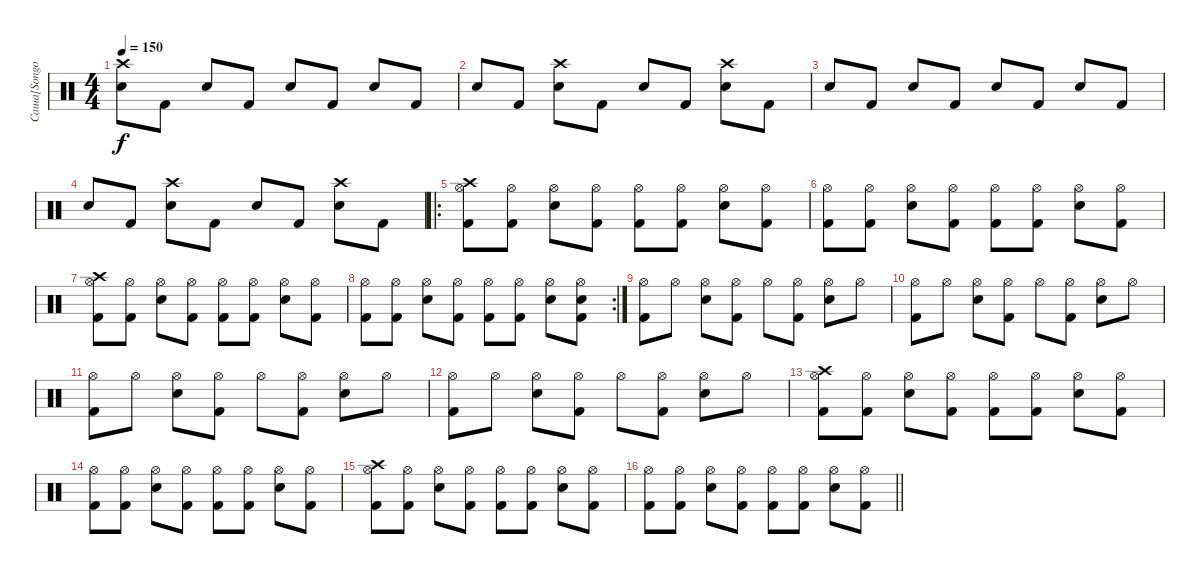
\track ("Саша[Songo]" "Саша[Songo") {instrument percussion}
\staff {score}
\articulation defaults
\ts (4 4)
\tempo 150
\clef neutral
\ks c
("Crash high (hit)" "Electric Snare (hit)").8{dy f} "Kick (hit) 2".8 "Electric Snare (hit)".8 "Kick (hit) 2".8 "Electric Snare (hit)".8 "Kick (hit) 2".8 "Electric Snare (hit)".8 "Kick (hit) 2".8 |
"Electric Snare (hit)".8 "Kick (hit) 2".8 ("Crash high (hit)" "Electric Snare (hit)").8 "Kick (hit) 2".8 "Electric Snare (hit)".8 "Kick (hit) 2".8 ("Crash high (hit)" "Electric Snare (hit)").8 "Kick (hit) 2".8 |
"Electric Snare (hit)".8 "Kick (hit) 2".8 "Electric Snare (hit)".8 "Kick (hit) 2".8 "Electric Snare (hit)".8 "Kick (hit) 2".8 "Electric Snare (hit)".8 "Kick (hit) 2".8 |
"Electric Snare (hit)".8 "Kick (hit) 2".8 ("Crash high (hit)" "Electric Snare (hit)").8 "Kick (hit) 2".8 "Electric Snare (hit)".8 "Kick (hit) 2".8 ("Crash high (hit)" "Electric Snare (hit)").8 "Kick (hit) 2".8 |
\ro
("Crash high (hit)" "Hi-Hat (open)" "Kick (hit) 2").8 ("Hi-Hat (open)" "Kick (hit) 2").8 ("Hi-Hat (open)" "Electric Snare (hit)").8 ("Hi-Hat (open)" "Kick (hit) 2").8 ("Hi-Hat (open)" "Kick (hit) 2").8 ("Hi-Hat (open)" "Kick (hit) 2").8 ("Hi-Hat (open)" "Electric Snare (hit)").8 ("Hi-Hat (open)" "Kick (hit) 2").8 |
("Hi-Hat (open)" "Kick (hit) 2").8 ("Hi-Hat (open)" "Kick (hit) 2").8 ("Hi-Hat (open)" "Electric Snare (hit)").8 ("Hi-Hat (open)" "Kick (hit) 2").8 ("Hi-Hat (open)" "Kick (hit) 2").8 ("Hi-Hat (open)" "Kick (hit) 2").8 ("Hi-Hat (open)" "Electric Snare (hit)").8 ("Hi-Hat (open)" "Kick (hit) 2").8 |
("Crash high (hit)" "Hi-Hat (open)" "Kick (hit) 2").8 ("Hi-Hat (open)" "Kick (hit) 2").8 ("Hi-Hat (open)" "Electric Snare (hit)").8 ("Hi-Hat (open)" "Kick (hit) 2").8 ("Hi-Hat (open)" "Kick (hit) 2").8 ("Hi-Hat (open)" "Kick (hit) 2").8 ("Hi-Hat (open)" "Electric Snare (hit)").8 ("Hi-Hat (open)" "Kick (hit) 2").8 |
\rc 2
("Hi-Hat (open)" "Kick (hit) 2").8 ("Hi-Hat (open)" "Kick (hit) 2").8 ("Hi-Hat (open)" "Electric Snare (hit)").8 ("Hi-Hat (open)" "Kick (hit) 2").8 ("Hi-Hat (open)" "Kick (hit) 2").8 ("Hi-Hat (open)" "Kick (hit) 2").8 ("Hi-Hat (open)" "Electric Snare (hit)").8 ("Hi-Hat (open)" "Electric Snare (hit)" "Kick (hit) 2").8 |
("Hi-Hat (open)" "Kick (hit) 2").8 "Hi-Hat (open)".8 ("Hi-Hat (open)" "Snare (hit) 2").8 ("Hi-Hat (open)" "Kick (hit) 2").8 "Hi-Hat (open)".8 ("Hi-Hat (open)" "Kick (hit) 2").8 ("Hi-Hat (open)" "Snare (hit) 2").8 "Hi-Hat (open)".8 |
("Hi-Hat (open)" "Kick (hit) 2").8 "Hi-Hat (open)".8 ("Hi-Hat (open)" "Snare (hit) 2").8 ("Hi-Hat (open)" "Kick (hit) 2").8 "Hi-Hat (open)".8 ("Hi-Hat (open)" "Kick (hit) 2").8 ("Hi-Hat (open)" "Snare (hit) 2").8 "Hi-Hat (open)".8 |
("Hi-Hat (open)" "Kick (hit) 2").8 "Hi-Hat (open)".8 ("Hi-Hat (open)" "Snare (hit) 2").8 ("Hi-Hat (open)" "Kick (hit) 2").8 "Hi-Hat (open)".8 ("Hi-Hat (open)" "Kick (hit) 2").8 ("Hi-Hat (open)" "Snare (hit) 2").8 "Hi-Hat (open)".8 |
("Hi-Hat (open)" "Kick (hit) 2").8 "Hi-Hat (open)".8 ("Hi-Hat (open)" "Snare (hit) 2").8 ("Hi-Hat (open)" "Kick (hit) 2").8 "Hi-Hat (open)".8 ("Hi-Hat (open)" "Kick (hit) 2").8 ("Hi-Hat (open)" "Snare (hit) 2").8 "Hi-Hat (open)".8 |
("Crash high (hit)" "Hi-Hat (open)" "Kick (hit) 2").8 ("Hi-Hat (open)" "Kick (hit) 2").8 ("Hi-Hat (open)" "Snare (hit) 2").8 ("Hi-Hat (open)" "Kick (hit) 2").8 ("Hi-Hat (open)" "Kick (hit) 2").8 ("Hi-Hat (open)" "Kick (hit) 2").8 ("Hi-Hat (open)" "Snare (hit) 2").8 ("Hi-Hat (open)" "Kick (hit) 2").8 |
("Hi-Hat (open)" "Kick (hit) 2").8 ("Hi-Hat (open)" "Kick (hit) 2").8 ("Hi-Hat (open)" "Snare (hit) 2").8 ("Hi-Hat (open)" "Kick (hit) 2").8 ("Hi-Hat (open)" "Kick (hit) 2").8 ("Hi-Hat (open)" "Kick (hit) 2").8 ("Hi-Hat (open)" "Snare (hit) 2").8 ("Hi-Hat (open)" "Kick (hit) 2").8 |
("Crash high (hit)" "Hi-Hat (open)" "Kick (hit) 2").8 ("Hi-Hat (open)" "Kick (hit) 2").8 ("Hi-Hat (open)" "Snare (hit) 2").8 ("Hi-Hat (open)" "Kick (hit) 2").8 ("Hi-Hat (open)" "Kick (hit) 2").8 ("Hi-Hat (open)" "Kick (hit) 2").8 ("Hi-Hat (open)" "Snare (hit) 2").8 ("Hi-Hat (open)" "Kick (hit) 2").8 |
\barLineRight lightlight
("Hi-Hat (open)" "Kick (hit) 2").8 ("Hi-Hat (open)" "Kick (hit) 2").8 ("Hi-Hat (open)" "Snare (hit) 2").8 ("Hi-Hat (open)" "Kick (hit) 2").8 ("Hi-Hat (open)" "Kick (hit) 2").8 ("Hi-Hat (open)" "Kick (hit) 2").8 ("Hi-Hat (open)" "Snare (hit) 2").8 ("Hi-Hat (open)" "Kick (hit) 2").8
